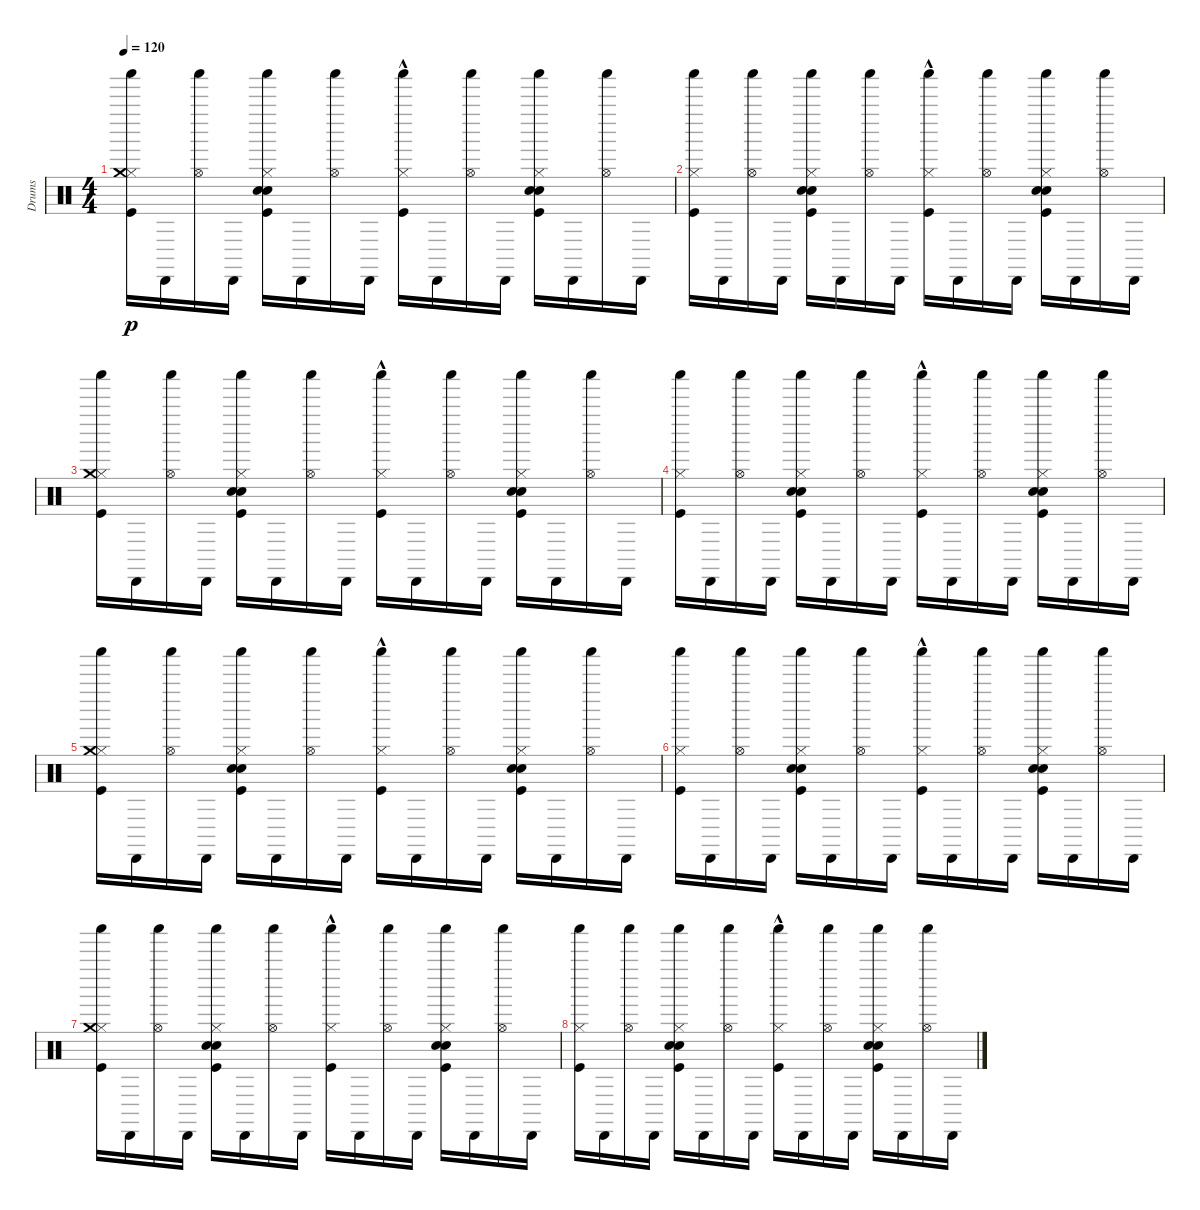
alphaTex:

\track ("Drums" "Drums") {instrument percussion}
\staff {score}
\articulation defaults
\ts (4 4)
\tempo 120
\clef neutral
\ks c
("Kick (hit)" "Hi-Hat (closed)" "Crash medium (hit)" "Shaker (hit)").16{dy p} "Cabasa (hit)".16 ("Hi-Hat (open)" "Shaker (hit)").16 "Cabasa (hit)".16 ("Kick (hit)" "Snare (hit) 2" "Electric Snare (hit)" "Hi-Hat (closed)" "Shaker (hit)").16 "Cabasa (hit)".16 ("Hi-Hat (open)" "Shaker (hit)").16 "Cabasa (hit)".16 ("Kick (hit)" "Hi-Hat (closed)" "Shaker (hit)"{hac}).16 "Cabasa (hit)".16 ("Hi-Hat (open)" "Shaker (hit)").16 "Cabasa (hit)".16 ("Kick (hit)" "Snare (hit) 2" "Electric Snare (hit)" "Hi-Hat (closed)" "Shaker (hit)").16 "Cabasa (hit)".16 ("Hi-Hat (open)" "Shaker (hit)").16 "Cabasa (hit)".16 |
("Kick (hit)" "Hi-Hat (closed)" "Shaker (hit)").16 "Cabasa (hit)".16 ("Hi-Hat (open)" "Shaker (hit)").16 "Cabasa (hit)".16 ("Kick (hit)" "Snare (hit) 2" "Electric Snare (hit)" "Hi-Hat (closed)" "Shaker (hit)").16 "Cabasa (hit)".16 ("Hi-Hat (open)" "Shaker (hit)").16 "Cabasa (hit)".16 ("Kick (hit)" "Hi-Hat (closed)" "Shaker (hit)"{hac}).16 "Cabasa (hit)".16 ("Hi-Hat (open)" "Shaker (hit)").16 "Cabasa (hit)".16 ("Kick (hit)" "Snare (hit) 2" "Electric Snare (hit)" "Hi-Hat (closed)" "Shaker (hit)").16 "Cabasa (hit)".16 ("Hi-Hat (open)" "Shaker (hit)").16 "Cabasa (hit)".16 |
("Kick (hit)" "Hi-Hat (closed)" "Crash medium (hit)" "Shaker (hit)").16 "Cabasa (hit)".16 ("Hi-Hat (open)" "Shaker (hit)").16 "Cabasa (hit)".16 ("Kick (hit)" "Snare (hit) 2" "Electric Snare (hit)" "Hi-Hat (closed)" "Shaker (hit)").16 "Cabasa (hit)".16 ("Hi-Hat (open)" "Shaker (hit)").16 "Cabasa (hit)".16 ("Kick (hit)" "Hi-Hat (closed)" "Shaker (hit)"{hac}).16 "Cabasa (hit)".16 ("Hi-Hat (open)" "Shaker (hit)").16 "Cabasa (hit)".16 ("Kick (hit)" "Snare (hit) 2" "Electric Snare (hit)" "Hi-Hat (closed)" "Shaker (hit)").16 "Cabasa (hit)".16 ("Hi-Hat (open)" "Shaker (hit)").16 "Cabasa (hit)".16 |
("Kick (hit)" "Hi-Hat (closed)" "Shaker (hit)").16 "Cabasa (hit)".16 ("Hi-Hat (open)" "Shaker (hit)").16 "Cabasa (hit)".16 ("Kick (hit)" "Snare (hit) 2" "Electric Snare (hit)" "Hi-Hat (closed)" "Shaker (hit)").16 "Cabasa (hit)".16 ("Hi-Hat (open)" "Shaker (hit)").16 "Cabasa (hit)".16 ("Kick (hit)" "Hi-Hat (closed)" "Shaker (hit)"{hac}).16 "Cabasa (hit)".16 ("Hi-Hat (open)" "Shaker (hit)").16 "Cabasa (hit)".16 ("Kick (hit)" "Snare (hit) 2" "Electric Snare (hit)" "Hi-Hat (closed)" "Shaker (hit)").16 "Cabasa (hit)".16 ("Hi-Hat (open)" "Shaker (hit)").16 "Cabasa (hit)".16 |
("Kick (hit)" "Hi-Hat (closed)" "Crash medium (hit)" "Shaker (hit)").16 "Cabasa (hit)".16 ("Hi-Hat (open)" "Shaker (hit)").16 "Cabasa (hit)".16 ("Kick (hit)" "Snare (hit) 2" "Electric Snare (hit)" "Hi-Hat (closed)" "Shaker (hit)").16 "Cabasa (hit)".16 ("Hi-Hat (open)" "Shaker (hit)").16 "Cabasa (hit)".16 ("Kick (hit)" "Hi-Hat (closed)" "Shaker (hit)"{hac}).16 "Cabasa (hit)".16 ("Hi-Hat (open)" "Shaker (hit)").16 "Cabasa (hit)".16 ("Kick (hit)" "Snare (hit) 2" "Electric Snare (hit)" "Hi-Hat (closed)" "Shaker (hit)").16 "Cabasa (hit)".16 ("Hi-Hat (open)" "Shaker (hit)").16 "Cabasa (hit)".16 |
("Kick (hit)" "Hi-Hat (closed)" "Shaker (hit)").16 "Cabasa (hit)".16 ("Hi-Hat (open)" "Shaker (hit)").16 "Cabasa (hit)".16 ("Kick (hit)" "Snare (hit) 2" "Electric Snare (hit)" "Hi-Hat (closed)" "Shaker (hit)").16 "Cabasa (hit)".16 ("Hi-Hat (open)" "Shaker (hit)").16 "Cabasa (hit)".16 ("Kick (hit)" "Hi-Hat (closed)" "Shaker (hit)"{hac}).16 "Cabasa (hit)".16 ("Hi-Hat (open)" "Shaker (hit)").16 "Cabasa (hit)".16 ("Kick (hit)" "Snare (hit) 2" "Electric Snare (hit)" "Hi-Hat (closed)" "Shaker (hit)").16 "Cabasa (hit)".16 ("Hi-Hat (open)" "Shaker (hit)").16 "Cabasa (hit)".16 |
("Kick (hit)" "Hi-Hat (closed)" "Crash medium (hit)" "Shaker (hit)").16 "Cabasa (hit)".16 ("Hi-Hat (open)" "Shaker (hit)").16 "Cabasa (hit)".16 ("Kick (hit)" "Snare (hit) 2" "Electric Snare (hit)" "Hi-Hat (closed)" "Shaker (hit)").16 "Cabasa (hit)".16 ("Hi-Hat (open)" "Shaker (hit)").16 "Cabasa (hit)".16 ("Kick (hit)" "Hi-Hat (closed)" "Shaker (hit)"{hac}).16 "Cabasa (hit)".16 ("Hi-Hat (open)" "Shaker (hit)").16 "Cabasa (hit)".16 ("Kick (hit)" "Snare (hit) 2" "Electric Snare (hit)" "Hi-Hat (closed)" "Shaker (hit)").16 "Cabasa (hit)".16 ("Hi-Hat (open)" "Shaker (hit)").16 "Cabasa (hit)".16 |
("Kick (hit)" "Hi-Hat (closed)" "Shaker (hit)").16 "Cabasa (hit)".16 ("Hi-Hat (open)" "Shaker (hit)").16 "Cabasa (hit)".16 ("Kick (hit)" "Snare (hit) 2" "Electric Snare (hit)" "Hi-Hat (closed)" "Shaker (hit)").16 "Cabasa (hit)".16 ("Hi-Hat (open)" "Shaker (hit)").16 "Cabasa (hit)".16 ("Kick (hit)" "Hi-Hat (closed)" "Shaker (hit)"{hac}).16 "Cabasa (hit)".16 ("Hi-Hat (open)" "Shaker (hit)").16 "Cabasa (hit)".16 ("Kick (hit)" "Snare (hit) 2" "Electric Snare (hit)" "Hi-Hat (closed)" "Shaker (hit)").16 "Cabasa (hit)".16 ("Hi-Hat (open)" "Shaker (hit)").16 "Cabasa (hit)".16
